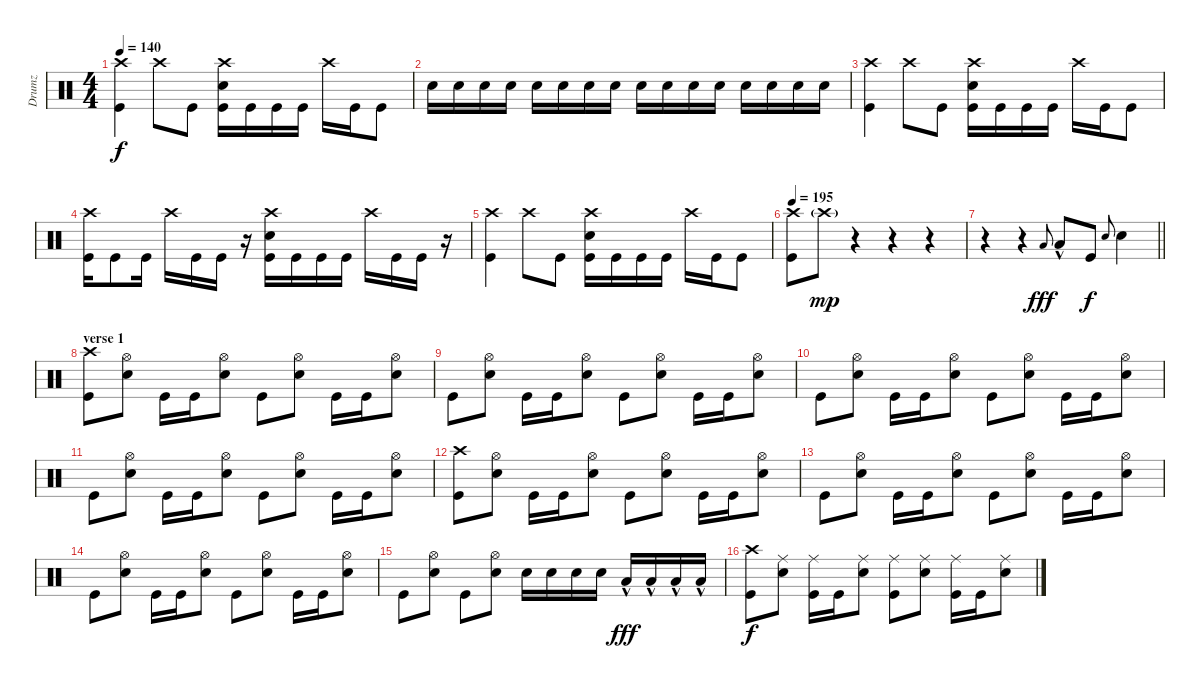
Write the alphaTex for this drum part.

\track ("Drumz" "Drumz") {instrument percussion}
\staff {score}
\articulation defaults
\ts (4 4)
\tempo 140
\clef neutral
\ks c
("Crash high (hit)" "Kick (hit)").4{dy f} "Crash high (hit)".8 "Kick (hit)".8 ("Crash high (hit)" "Electric Snare (hit)" "Kick (hit)").16 "Kick (hit)".16 "Kick (hit)".16 "Kick (hit)".16 "Crash high (hit)".16 "Kick (hit)".16 "Kick (hit)".8 |
"Electric Snare (hit)".16 "Electric Snare (hit)".16 "Electric Snare (hit)".16 "Electric Snare (hit)".16 "Electric Snare (hit)".16 "Electric Snare (hit)".16 "Electric Snare (hit)".16 "Electric Snare (hit)".16 "Electric Snare (hit)".16 "Electric Snare (hit)".16 "Electric Snare (hit)".16 "Electric Snare (hit)".16 "Electric Snare (hit)".16 "Electric Snare (hit)".16 "Electric Snare (hit)".16 "Electric Snare (hit)".16 |
("Crash high (hit)" "Kick (hit)").4 "Crash high (hit)".8 "Kick (hit)".8 ("Crash high (hit)" "Electric Snare (hit)" "Kick (hit)").16 "Kick (hit)".16 "Kick (hit)".16 "Kick (hit)".16 "Crash high (hit)".16 "Kick (hit)".16 "Kick (hit)".8 |
("Crash high (hit)" "Kick (hit)").16 "Kick (hit)".8 "Kick (hit)".16 "Crash high (hit)".16 "Kick (hit)".16 "Kick (hit)".16 r.16 ("Crash high (hit)" "Electric Snare (hit)" "Kick (hit)").16 "Kick (hit)".16 "Kick (hit)".16 "Kick (hit)".16 "Crash high (hit)".16 "Kick (hit)".16 "Kick (hit)".16 r.16 |
("Crash high (hit)" "Kick (hit)").4 "Crash high (hit)".8 "Kick (hit)".8 ("Crash high (hit)" "Electric Snare (hit)" "Kick (hit)").16 "Kick (hit)".16 "Kick (hit)".16 "Kick (hit)".16 "Crash high (hit)".16 "Kick (hit)".16 "Kick (hit)".8 |
\tempo 195
("Crash high (hit)" "Kick (hit)").8 "Crash high (hit)"{g}.8{dy mp} r.4 r.4 r.4 |
\barLineRight lightlight
r.4 r.4 "Low Tom (hit)".8{gr onbeat dy fff} "Low Tom (hit)"{hac}.8 "Kick (hit)".8{dy f} "Electric Snare (hit)".8{gr onbeat} "Electric Snare (hit)".4 |
\section ("" "verse 1")
("Crash high (hit)" "Kick (hit)").8 ("Hi-Hat (open)" "Electric Snare (hit)").8 "Kick (hit)".16 "Kick (hit)".16 ("Hi-Hat (open)" "Electric Snare (hit)").8 "Kick (hit)".8 ("Hi-Hat (open)" "Electric Snare (hit)").8 "Kick (hit)".16 "Kick (hit)".16 ("Hi-Hat (open)" "Electric Snare (hit)").8 |
"Kick (hit)".8 ("Hi-Hat (open)" "Electric Snare (hit)").8 "Kick (hit)".16 "Kick (hit)".16 ("Hi-Hat (open)" "Electric Snare (hit)").8 "Kick (hit)".8 ("Hi-Hat (open)" "Electric Snare (hit)").8 "Kick (hit)".16 "Kick (hit)".16 ("Hi-Hat (open)" "Electric Snare (hit)").8 |
"Kick (hit)".8 ("Hi-Hat (open)" "Electric Snare (hit)").8 "Kick (hit)".16 "Kick (hit)".16 ("Hi-Hat (open)" "Electric Snare (hit)").8 "Kick (hit)".8 ("Hi-Hat (open)" "Electric Snare (hit)").8 "Kick (hit)".16 "Kick (hit)".16 ("Hi-Hat (open)" "Electric Snare (hit)").8 |
"Kick (hit)".8 ("Hi-Hat (open)" "Electric Snare (hit)").8 "Kick (hit)".16 "Kick (hit)".16 ("Hi-Hat (open)" "Electric Snare (hit)").8 "Kick (hit)".8 ("Hi-Hat (open)" "Electric Snare (hit)").8 "Kick (hit)".16 "Kick (hit)".16 ("Hi-Hat (open)" "Electric Snare (hit)").8 |
("Crash high (hit)" "Kick (hit)").8 ("Hi-Hat (open)" "Electric Snare (hit)").8 "Kick (hit)".16 "Kick (hit)".16 ("Hi-Hat (open)" "Electric Snare (hit)").8 "Kick (hit)".8 ("Hi-Hat (open)" "Electric Snare (hit)").8 "Kick (hit)".16 "Kick (hit)".16 ("Hi-Hat (open)" "Electric Snare (hit)").8 |
"Kick (hit)".8 ("Hi-Hat (open)" "Electric Snare (hit)").8 "Kick (hit)".16 "Kick (hit)".16 ("Hi-Hat (open)" "Electric Snare (hit)").8 "Kick (hit)".8 ("Hi-Hat (open)" "Electric Snare (hit)").8 "Kick (hit)".16 "Kick (hit)".16 ("Hi-Hat (open)" "Electric Snare (hit)").8 |
"Kick (hit)".8 ("Hi-Hat (open)" "Electric Snare (hit)").8 "Kick (hit)".16 "Kick (hit)".16 ("Hi-Hat (open)" "Electric Snare (hit)").8 "Kick (hit)".8 ("Hi-Hat (open)" "Electric Snare (hit)").8 "Kick (hit)".16 "Kick (hit)".16 ("Hi-Hat (open)" "Electric Snare (hit)").8 |
"Kick (hit)".8 ("Hi-Hat (open)" "Electric Snare (hit)").8 "Kick (hit)".8 ("Hi-Hat (open)" "Electric Snare (hit)").8 "Electric Snare (hit)".16 "Electric Snare (hit)".16 "Electric Snare (hit)".16 "Electric Snare (hit)".16 "Low Tom (hit)"{hac}.16{dy fff} "Low Tom (hit)"{hac}.16 "Low Tom (hit)"{hac}.16 "Low Tom (hit)"{hac}.16 |
("Crash high (hit)" "Kick (hit)").8{dy f} ("Ride (middle)" "Electric Snare (hit)").8 ("Ride (middle)" "Kick (hit)").16 "Kick (hit)".16 ("Ride (middle)" "Electric Snare (hit)").8 ("Ride (middle)" "Kick (hit)").8 ("Ride (middle)" "Electric Snare (hit)").8 ("Ride (middle)" "Kick (hit)").16 "Kick (hit)".16 ("Ride (middle)" "Electric Snare (hit)").8
